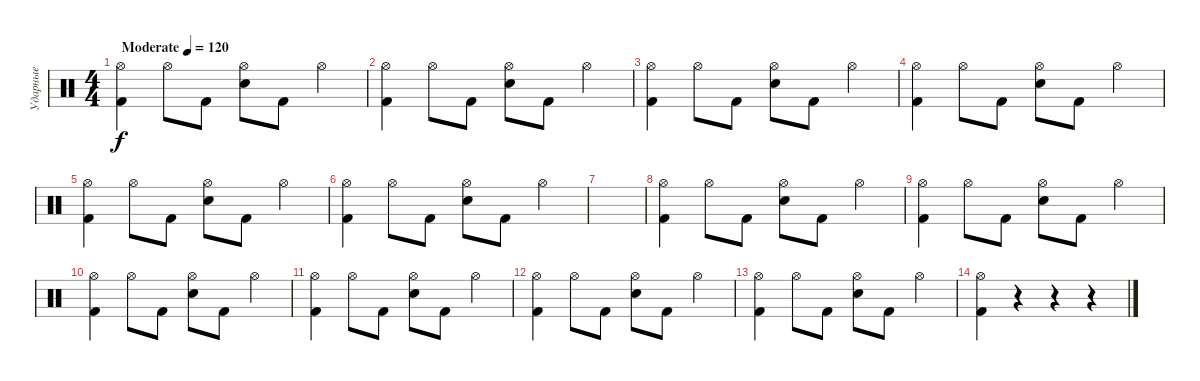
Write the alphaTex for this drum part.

\track ("Ударные" "Ударные") {instrument percussion}
\staff {score}
\articulation defaults
\ts (4 4)
\tempo (120 "Moderate")
\clef neutral
\ks c
("Kick (hit) 2" "Hi-Hat (open)").4{dy f} "Hi-Hat (open)".8 "Kick (hit) 2".8 ("Hi-Hat (open)" "Snare (hit) 2").8 "Kick (hit) 2".8 "Hi-Hat (open)".4 |
("Kick (hit) 2" "Hi-Hat (open)").4 "Hi-Hat (open)".8 "Kick (hit) 2".8 ("Hi-Hat (open)" "Snare (hit) 2").8 "Kick (hit) 2".8 "Hi-Hat (open)".4 |
("Kick (hit) 2" "Hi-Hat (open)").4 "Hi-Hat (open)".8 "Kick (hit) 2".8 ("Hi-Hat (open)" "Snare (hit) 2").8 "Kick (hit) 2".8 "Hi-Hat (open)".4 |
("Kick (hit) 2" "Hi-Hat (open)").4 "Hi-Hat (open)".8 "Kick (hit) 2".8 ("Hi-Hat (open)" "Snare (hit) 2").8 "Kick (hit) 2".8 "Hi-Hat (open)".4 |
("Kick (hit) 2" "Hi-Hat (open)").4 "Hi-Hat (open)".8 "Kick (hit) 2".8 ("Hi-Hat (open)" "Snare (hit) 2").8 "Kick (hit) 2".8 "Hi-Hat (open)".4 |
("Kick (hit) 2" "Hi-Hat (open)").4 "Hi-Hat (open)".8 "Kick (hit) 2".8 ("Hi-Hat (open)" "Snare (hit) 2").8 "Kick (hit) 2".8 "Hi-Hat (open)".4 |
|
("Kick (hit) 2" "Hi-Hat (open)").4 "Hi-Hat (open)".8 "Kick (hit) 2".8 ("Hi-Hat (open)" "Snare (hit) 2").8 "Kick (hit) 2".8 "Hi-Hat (open)".4 |
("Kick (hit) 2" "Hi-Hat (open)").4 "Hi-Hat (open)".8 "Kick (hit) 2".8 ("Hi-Hat (open)" "Snare (hit) 2").8 "Kick (hit) 2".8 "Hi-Hat (open)".4 |
("Kick (hit) 2" "Hi-Hat (open)").4 "Hi-Hat (open)".8 "Kick (hit) 2".8 ("Hi-Hat (open)" "Snare (hit) 2").8 "Kick (hit) 2".8 "Hi-Hat (open)".4 |
("Kick (hit) 2" "Hi-Hat (open)").4 "Hi-Hat (open)".8 "Kick (hit) 2".8 ("Hi-Hat (open)" "Snare (hit) 2").8 "Kick (hit) 2".8 "Hi-Hat (open)".4 |
("Kick (hit) 2" "Hi-Hat (open)").4 "Hi-Hat (open)".8 "Kick (hit) 2".8 ("Hi-Hat (open)" "Snare (hit) 2").8 "Kick (hit) 2".8 "Hi-Hat (open)".4 |
("Kick (hit) 2" "Hi-Hat (open)").4 "Hi-Hat (open)".8 "Kick (hit) 2".8 ("Hi-Hat (open)" "Snare (hit) 2").8 "Kick (hit) 2".8 "Hi-Hat (open)".4 |
("Kick (hit) 2" "Hi-Hat (open)").4 r.4 r.4 r.4
